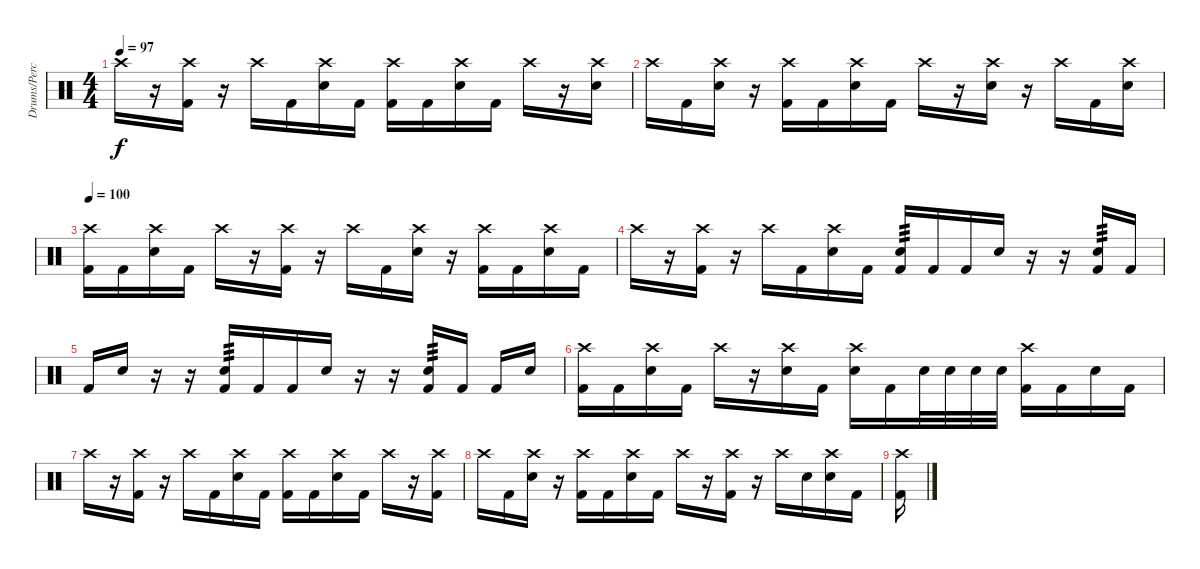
\track ("Drums/Perc" "Drums/Perc") {instrument percussion}
\staff {score}
\articulation defaults
\ts (4 4)
\tempo 97
\clef neutral
\ks c "Crash high (hit)".16{dy f}
r.16 ("Crash high (hit)" "Kick (hit) 2").16 r.16 "Crash high (hit)".16 "Kick (hit) 2".16 ("Crash high (hit)" "Snare (hit) 2").16 "Kick (hit) 2".16 ("Crash high (hit)" "Kick (hit) 2").16 "Kick (hit) 2".16 ("Crash high (hit)" "Snare (hit) 2").16 "Kick (hit) 2".16 "Crash high (hit)".16 r.16 ("Crash high (hit)" "Snare (hit) 2").16 |
"Crash high (hit)".16 "Kick (hit) 2".16 ("Crash high (hit)" "Snare (hit) 2").16 r.16 ("Crash high (hit)" "Kick (hit) 2").16 "Kick (hit) 2".16 ("Crash high (hit)" "Snare (hit) 2").16 "Kick (hit) 2".16 "Crash high (hit)".16 r.16 ("Crash high (hit)" "Snare (hit) 2").16 r.16 "Crash high (hit)".16 "Kick (hit) 2".16 ("Crash high (hit)" "Snare (hit) 2").16 |
\tempo 100
("Crash high (hit)" "Kick (hit) 2").16 "Kick (hit) 2".16 ("Crash high (hit)" "Snare (hit) 2").16 "Kick (hit) 2".16 "Crash high (hit)".16 r.16 ("Crash high (hit)" "Kick (hit) 2").16 r.16 "Crash high (hit)".16 "Kick (hit) 2".16 ("Crash high (hit)" "Snare (hit) 2").16 r.16 ("Crash high (hit)" "Kick (hit) 2").16 "Kick (hit) 2".16 ("Crash high (hit)" "Snare (hit) 2").16 "Kick (hit) 2".16 |
"Crash high (hit)".16 r.16 ("Crash high (hit)" "Kick (hit) 2").16 r.16 "Crash high (hit)".16 "Kick (hit) 2".16 ("Crash high (hit)" "Snare (hit) 2").16 "Kick (hit) 2".16 ("Snare (hit) 2" "Kick (hit) 2").16{tp 3} "Kick (hit) 2".16 "Kick (hit) 2".16 "Snare (hit) 2".16 r.16 r.16 ("Snare (hit) 2" "Kick (hit) 2").16{tp 3} "Kick (hit) 2".16 |
"Kick (hit) 2".16 "Snare (hit) 2".16 r.16 r.16 ("Snare (hit) 2" "Kick (hit) 2").16{tp 3} "Kick (hit) 2".16 "Kick (hit) 2".16 "Snare (hit) 2".16 r.16 r.16 ("Snare (hit) 2" "Kick (hit) 2").16{tp 3} "Kick (hit) 2".16 "Kick (hit) 2".16 "Snare (hit) 2".16 |
("Crash high (hit)" "Kick (hit) 2").16 "Kick (hit) 2".16 ("Crash high (hit)" "Snare (hit) 2").16 "Kick (hit) 2".16 "Crash high (hit)".16 r.16 ("Crash high (hit)" "Snare (hit) 2").16 "Kick (hit) 2".16 ("Crash high (hit)" "Snare (hit) 2").16 "Kick (hit) 2".16 "Snare (hit) 2".32 "Snare (hit) 2".32 "Snare (hit) 2".32 "Snare (hit) 2".32 ("Crash high (hit)" "Kick (hit) 2").16 "Kick (hit) 2".16 "Snare (hit) 2".16 "Kick (hit) 2".16 |
"Crash high (hit)".16 r.16 ("Crash high (hit)" "Kick (hit) 2").16 r.16 "Crash high (hit)".16 "Kick (hit) 2".16 ("Crash high (hit)" "Snare (hit) 2").16 "Kick (hit) 2".16 ("Crash high (hit)" "Kick (hit) 2").16 "Kick (hit) 2".16 ("Crash high (hit)" "Snare (hit) 2").16 "Kick (hit) 2".16 "Crash high (hit)".16 r.16 ("Crash high (hit)" "Kick (hit) 2").16 |
"Crash high (hit)".16 "Kick (hit) 2".16 ("Crash high (hit)" "Snare (hit) 2").16 r.16 ("Crash high (hit)" "Kick (hit) 2").16 "Kick (hit) 2".16 ("Crash high (hit)" "Snare (hit) 2").16 "Kick (hit) 2".16 "Crash high (hit)".16 r.16 ("Crash high (hit)" "Kick (hit) 2").16 r.16 "Crash high (hit)".16 "Snare (hit) 2".16 ("Crash high (hit)" "Snare (hit) 2").16 "Kick (hit) 2".16 |
("Crash high (hit)" "Kick (hit) 2").16
